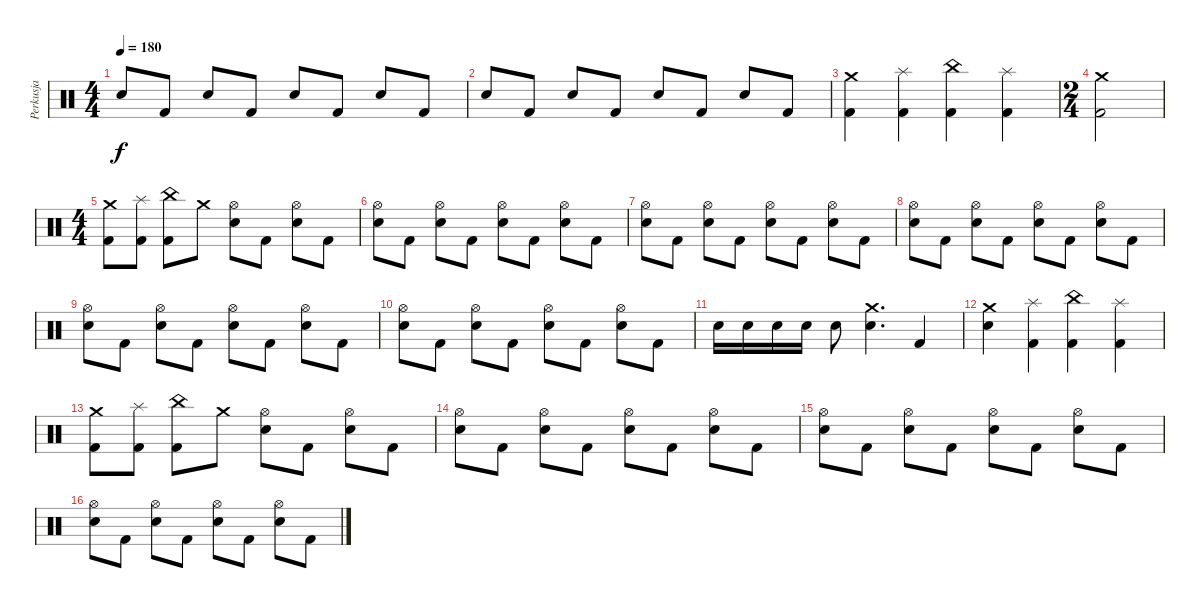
\track ("Perkusja" "Perkusja") {instrument percussion}
\staff {score}
\articulation defaults
\ts (4 4)
\tempo 180
\clef neutral
\ks c "Electric Snare (hit)".8{dy f} "Kick (hit) 2".8 "Electric Snare (hit)".8 "Kick (hit) 2".8 "Electric Snare (hit)".8 "Kick (hit) 2".8 "Electric Snare (hit)".8 "Kick (hit) 2".8
|
"Electric Snare (hit)".8 "Kick (hit) 2".8 "Electric Snare (hit)".8 "Kick (hit) 2".8 "Electric Snare (hit)".8 "Kick (hit) 2".8 "Electric Snare (hit)".8 "Kick (hit) 2".8 |
("Crash medium (hit)" "Kick (hit) 2").4 ("Splash (hit)" "Kick (hit) 2").4 ("China (hit)" "Kick (hit) 2").4 ("Splash (hit)" "Kick (hit) 2").4 |
\ts (2 4)
("Crash medium (hit)" "Kick (hit) 2").2 |
\ts (4 4)
("Crash medium (hit)" "Kick (hit) 2").8 ("Splash (hit)" "Kick (hit) 2").8 ("China (hit)" "Kick (hit) 2").8 "Crash medium (hit)".8 ("Hi-Hat (open)" "Electric Snare (hit)").8 "Kick (hit) 2".8 ("Hi-Hat (open)" "Electric Snare (hit)").8 "Kick (hit) 2".8 |
("Hi-Hat (open)" "Electric Snare (hit)").8 "Kick (hit) 2".8 ("Hi-Hat (open)" "Electric Snare (hit)").8 "Kick (hit) 2".8 ("Hi-Hat (open)" "Electric Snare (hit)").8 "Kick (hit) 2".8 ("Hi-Hat (open)" "Electric Snare (hit)").8 "Kick (hit) 2".8 |
("Hi-Hat (open)" "Electric Snare (hit)").8 "Kick (hit) 2".8 ("Hi-Hat (open)" "Electric Snare (hit)").8 "Kick (hit) 2".8 ("Hi-Hat (open)" "Electric Snare (hit)").8 "Kick (hit) 2".8 ("Hi-Hat (open)" "Electric Snare (hit)").8 "Kick (hit) 2".8 |
("Hi-Hat (open)" "Electric Snare (hit)").8 "Kick (hit) 2".8 ("Hi-Hat (open)" "Electric Snare (hit)").8 "Kick (hit) 2".8 ("Hi-Hat (open)" "Electric Snare (hit)").8 "Kick (hit) 2".8 ("Hi-Hat (open)" "Electric Snare (hit)").8 "Kick (hit) 2".8 |
("Hi-Hat (open)" "Electric Snare (hit)").8 "Kick (hit) 2".8 ("Hi-Hat (open)" "Electric Snare (hit)").8 "Kick (hit) 2".8 ("Hi-Hat (open)" "Electric Snare (hit)").8 "Kick (hit) 2".8 ("Hi-Hat (open)" "Electric Snare (hit)").8 "Kick (hit) 2".8 |
("Hi-Hat (open)" "Electric Snare (hit)").8 "Kick (hit) 2".8 ("Hi-Hat (open)" "Electric Snare (hit)").8 "Kick (hit) 2".8 ("Hi-Hat (open)" "Electric Snare (hit)").8 "Kick (hit) 2".8 ("Hi-Hat (open)" "Electric Snare (hit)").8 "Kick (hit) 2".8 |
"Electric Snare (hit)".16 "Electric Snare (hit)".16 "Electric Snare (hit)".16 "Electric Snare (hit)".16 "Electric Snare (hit)".8 ("Crash medium (hit)" "Electric Snare (hit)").4{d} "Kick (hit) 2".4 |
("Crash medium (hit)" "Electric Snare (hit)").4 ("Splash (hit)" "Kick (hit) 2").4 ("China (hit)" "Kick (hit) 2").4 ("Splash (hit)" "Kick (hit) 2").4 |
("Crash medium (hit)" "Kick (hit) 2").8 ("Splash (hit)" "Kick (hit) 2").8 ("China (hit)" "Kick (hit) 2").8 "Crash medium (hit)".8 ("Hi-Hat (open)" "Electric Snare (hit)").8 "Kick (hit) 2".8 ("Hi-Hat (open)" "Electric Snare (hit)").8 "Kick (hit) 2".8 |
("Hi-Hat (open)" "Electric Snare (hit)").8 "Kick (hit) 2".8 ("Hi-Hat (open)" "Electric Snare (hit)").8 "Kick (hit) 2".8 ("Hi-Hat (open)" "Electric Snare (hit)").8 "Kick (hit) 2".8 ("Hi-Hat (open)" "Electric Snare (hit)").8 "Kick (hit) 2".8 |
("Hi-Hat (open)" "Electric Snare (hit)").8 "Kick (hit) 2".8 ("Hi-Hat (open)" "Electric Snare (hit)").8 "Kick (hit) 2".8 ("Hi-Hat (open)" "Electric Snare (hit)").8 "Kick (hit) 2".8 ("Hi-Hat (open)" "Electric Snare (hit)").8 "Kick (hit) 2".8 |
("Hi-Hat (open)" "Electric Snare (hit)").8 "Kick (hit) 2".8 ("Hi-Hat (open)" "Electric Snare (hit)").8 "Kick (hit) 2".8 ("Hi-Hat (open)" "Electric Snare (hit)").8 "Kick (hit) 2".8 ("Hi-Hat (open)" "Electric Snare (hit)").8 "Kick (hit) 2".8
